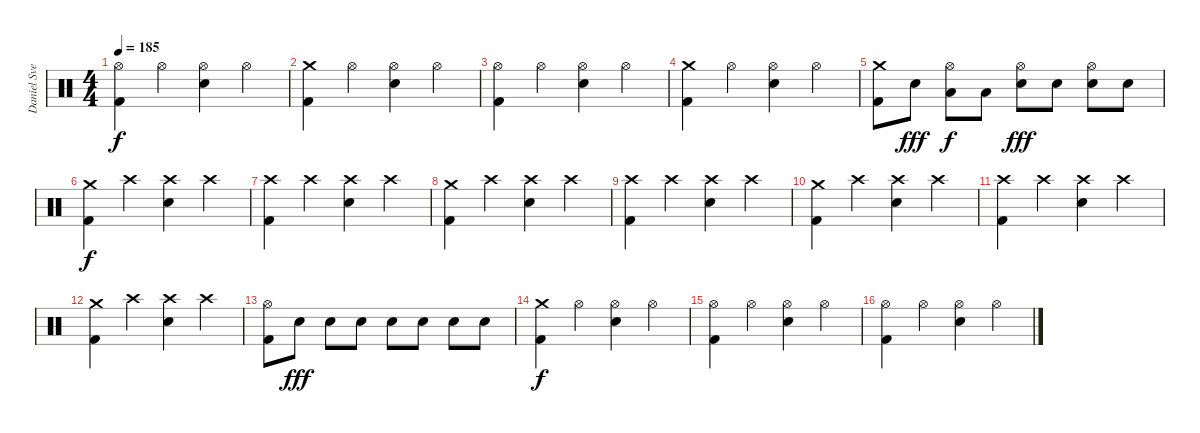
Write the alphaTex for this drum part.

\track ("Daniel Svensson" "Daniel Sve") {instrument percussion}
\staff {score}
\articulation defaults
\ts (4 4)
\tempo 185
\clef neutral
\ks c
("Kick (hit) 2" "Hi-Hat (open)").4{dy f} "Hi-Hat (open)".4 ("Electric Snare (hit)" "Hi-Hat (open)").4 "Hi-Hat (open)".4 |
("Kick (hit) 2" "Crash medium (hit)").4 "Hi-Hat (open)".4 ("Electric Snare (hit)" "Hi-Hat (open)").4 "Hi-Hat (open)".4 |
("Kick (hit) 2" "Hi-Hat (open)").4 "Hi-Hat (open)".4 ("Electric Snare (hit)" "Hi-Hat (open)").4 "Hi-Hat (open)".4 |
("Kick (hit) 2" "Crash medium (hit)").4 "Hi-Hat (open)".4 ("Electric Snare (hit)" "Hi-Hat (open)").4 "Hi-Hat (open)".4 |
("Kick (hit) 2" "Crash medium (hit)").8 "Electric Snare (hit)".8{dy fff} ("Low Tom (hit)" "Hi-Hat (open)").8{dy f} "Low Tom (hit)".8 ("Electric Snare (hit)" "Hi-Hat (open)").8{dy fff} "Electric Snare (hit)".8 ("Electric Snare (hit)" "Hi-Hat (open)").8 "Electric Snare (hit)".8 |
("Kick (hit) 2" "Crash medium (hit)").4{dy f} "Crash high (hit)".4 ("Electric Snare (hit)" "Crash high (hit)").4 "Crash high (hit)".4 |
("Kick (hit) 2" "Crash high (hit)").4 "Crash high (hit)".4 ("Electric Snare (hit)" "Crash high (hit)").4 "Crash high (hit)".4 |
("Kick (hit) 2" "Crash medium (hit)").4 "Crash high (hit)".4 ("Electric Snare (hit)" "Crash high (hit)").4 "Crash high (hit)".4 |
("Kick (hit) 2" "Crash high (hit)").4 "Crash high (hit)".4 ("Electric Snare (hit)" "Crash high (hit)").4 "Crash high (hit)".4 |
("Kick (hit) 2" "Crash medium (hit)").4 "Crash high (hit)".4 ("Electric Snare (hit)" "Crash high (hit)").4 "Crash high (hit)".4 |
("Kick (hit) 2" "Crash high (hit)").4 "Crash high (hit)".4 ("Electric Snare (hit)" "Crash high (hit)").4 "Crash high (hit)".4 |
("Kick (hit) 2" "Crash medium (hit)").4 "Crash high (hit)".4 ("Electric Snare (hit)" "Crash high (hit)").4 "Crash high (hit)".4 |
("Kick (hit) 2" "Hi-Hat (open)").8 "Electric Snare (hit)".8{dy fff} "Electric Snare (hit)".8 "Electric Snare (hit)".8 "Electric Snare (hit)".8 "Electric Snare (hit)".8 "Electric Snare (hit)".8 "Electric Snare (hit)".8 |
("Kick (hit) 2" "Crash medium (hit)").4{dy f} "Hi-Hat (open)".4 ("Electric Snare (hit)" "Hi-Hat (open)").4 "Hi-Hat (open)".4 |
("Kick (hit) 2" "Hi-Hat (open)").4 "Hi-Hat (open)".4 ("Electric Snare (hit)" "Hi-Hat (open)").4 "Hi-Hat (open)".4 |
("Kick (hit) 2" "Hi-Hat (open)").4 "Hi-Hat (open)".4 ("Electric Snare (hit)" "Hi-Hat (open)").4 "Hi-Hat (open)".4
